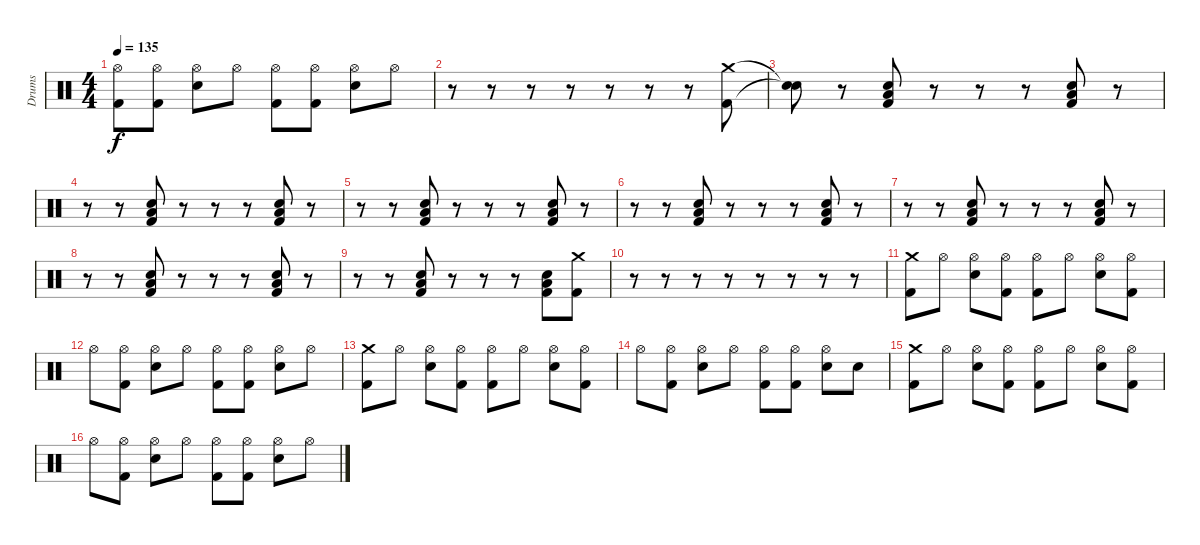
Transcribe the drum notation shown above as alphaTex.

\track ("Drums" "Drums") {instrument percussion}
\staff {score}
\articulation defaults
\ts (4 4)
\tempo 135
\clef neutral
\ks c
("Hi-Hat (open)" "Kick (hit) 2").8{dy f} ("Hi-Hat (open)" "Kick (hit) 2").8 ("Hi-Hat (open)" "Electric Snare (hit)").8 "Hi-Hat (open)".8 ("Hi-Hat (open)" "Kick (hit) 2").8 ("Hi-Hat (open)" "Kick (hit) 2").8 ("Hi-Hat (open)" "Electric Snare (hit)").8 "Hi-Hat (open)".8 |
r.8 r.8 r.8 r.8 r.8 r.8 r.8 ("Kick (hit) 2" "Crash medium (hit)").8 |
("Snare (hit)"{t} "Snare (hit)"{t}).8 r.8 ("Low Tom (hit)" "Kick (hit) 2" "Electric Snare (hit)").8 r.8 r.8 r.8 ("Low Tom (hit)" "Kick (hit) 2" "Electric Snare (hit)").8 r.8 |
r.8 r.8 ("Low Tom (hit)" "Kick (hit) 2" "Electric Snare (hit)").8 r.8 r.8 r.8 ("Low Tom (hit)" "Electric Snare (hit)" "Kick (hit) 2").8 r.8 |
r.8 r.8 ("Low Tom (hit)" "Kick (hit) 2" "Electric Snare (hit)").8 r.8 r.8 r.8 ("Low Tom (hit)" "Electric Snare (hit)" "Kick (hit) 2").8 r.8 |
r.8 r.8 ("Low Tom (hit)" "Kick (hit) 2" "Electric Snare (hit)").8 r.8 r.8 r.8 ("Low Tom (hit)" "Electric Snare (hit)" "Kick (hit) 2").8 r.8 |
r.8 r.8 ("Low Tom (hit)" "Kick (hit) 2" "Electric Snare (hit)").8 r.8 r.8 r.8 ("Low Tom (hit)" "Electric Snare (hit)" "Kick (hit) 2").8 r.8 |
r.8 r.8 ("Low Tom (hit)" "Kick (hit) 2" "Electric Snare (hit)").8 r.8 r.8 r.8 ("Low Tom (hit)" "Electric Snare (hit)" "Kick (hit) 2").8 r.8 |
r.8 r.8 ("Low Tom (hit)" "Kick (hit) 2" "Electric Snare (hit)").8 r.8 r.8 r.8 ("Low Tom (hit)" "Electric Snare (hit)" "Kick (hit) 2").8 ("Crash medium (hit)" "Kick (hit) 2").8 |
r.8 r.8 r.8 r.8 r.8 r.8 r.8 r.8 |
("Crash medium (hit)" "Kick (hit) 2").8 "Hi-Hat (open)".8 ("Hi-Hat (open)" "Electric Snare (hit)").8 ("Hi-Hat (open)" "Kick (hit) 2").8 ("Hi-Hat (open)" "Kick (hit) 2").8 "Hi-Hat (open)".8 ("Hi-Hat (open)" "Electric Snare (hit)").8 ("Hi-Hat (open)" "Kick (hit) 2").8 |
"Hi-Hat (open)".8 ("Hi-Hat (open)" "Kick (hit) 2").8 ("Hi-Hat (open)" "Electric Snare (hit)").8 "Hi-Hat (open)".8 ("Hi-Hat (open)" "Kick (hit) 2").8 ("Hi-Hat (open)" "Kick (hit) 2").8 ("Hi-Hat (open)" "Electric Snare (hit)").8 "Hi-Hat (open)".8 |
("Crash medium (hit)" "Kick (hit) 2").8 "Hi-Hat (open)".8 ("Hi-Hat (open)" "Electric Snare (hit)").8 ("Hi-Hat (open)" "Kick (hit) 2").8 ("Hi-Hat (open)" "Kick (hit) 2").8 "Hi-Hat (open)".8 ("Hi-Hat (open)" "Electric Snare (hit)").8 ("Hi-Hat (open)" "Kick (hit) 2").8 |
"Hi-Hat (open)".8 ("Hi-Hat (open)" "Kick (hit) 2").8 ("Hi-Hat (open)" "Electric Snare (hit)").8 "Hi-Hat (open)".8 ("Hi-Hat (open)" "Kick (hit) 2").8 ("Hi-Hat (open)" "Kick (hit) 2").8 ("Hi-Hat (open)" "Electric Snare (hit)").8 "Electric Snare (hit)".8 |
("Crash medium (hit)" "Kick (hit) 2").8 "Hi-Hat (open)".8 ("Hi-Hat (open)" "Electric Snare (hit)").8 ("Hi-Hat (open)" "Kick (hit) 2").8 ("Hi-Hat (open)" "Kick (hit) 2").8 "Hi-Hat (open)".8 ("Hi-Hat (open)" "Electric Snare (hit)").8 ("Hi-Hat (open)" "Kick (hit) 2").8 |
"Hi-Hat (open)".8 ("Hi-Hat (open)" "Kick (hit) 2").8 ("Hi-Hat (open)" "Electric Snare (hit)").8 "Hi-Hat (open)".8 ("Hi-Hat (open)" "Kick (hit) 2").8 ("Hi-Hat (open)" "Kick (hit) 2").8 ("Hi-Hat (open)" "Electric Snare (hit)").8 "Hi-Hat (open)".8
